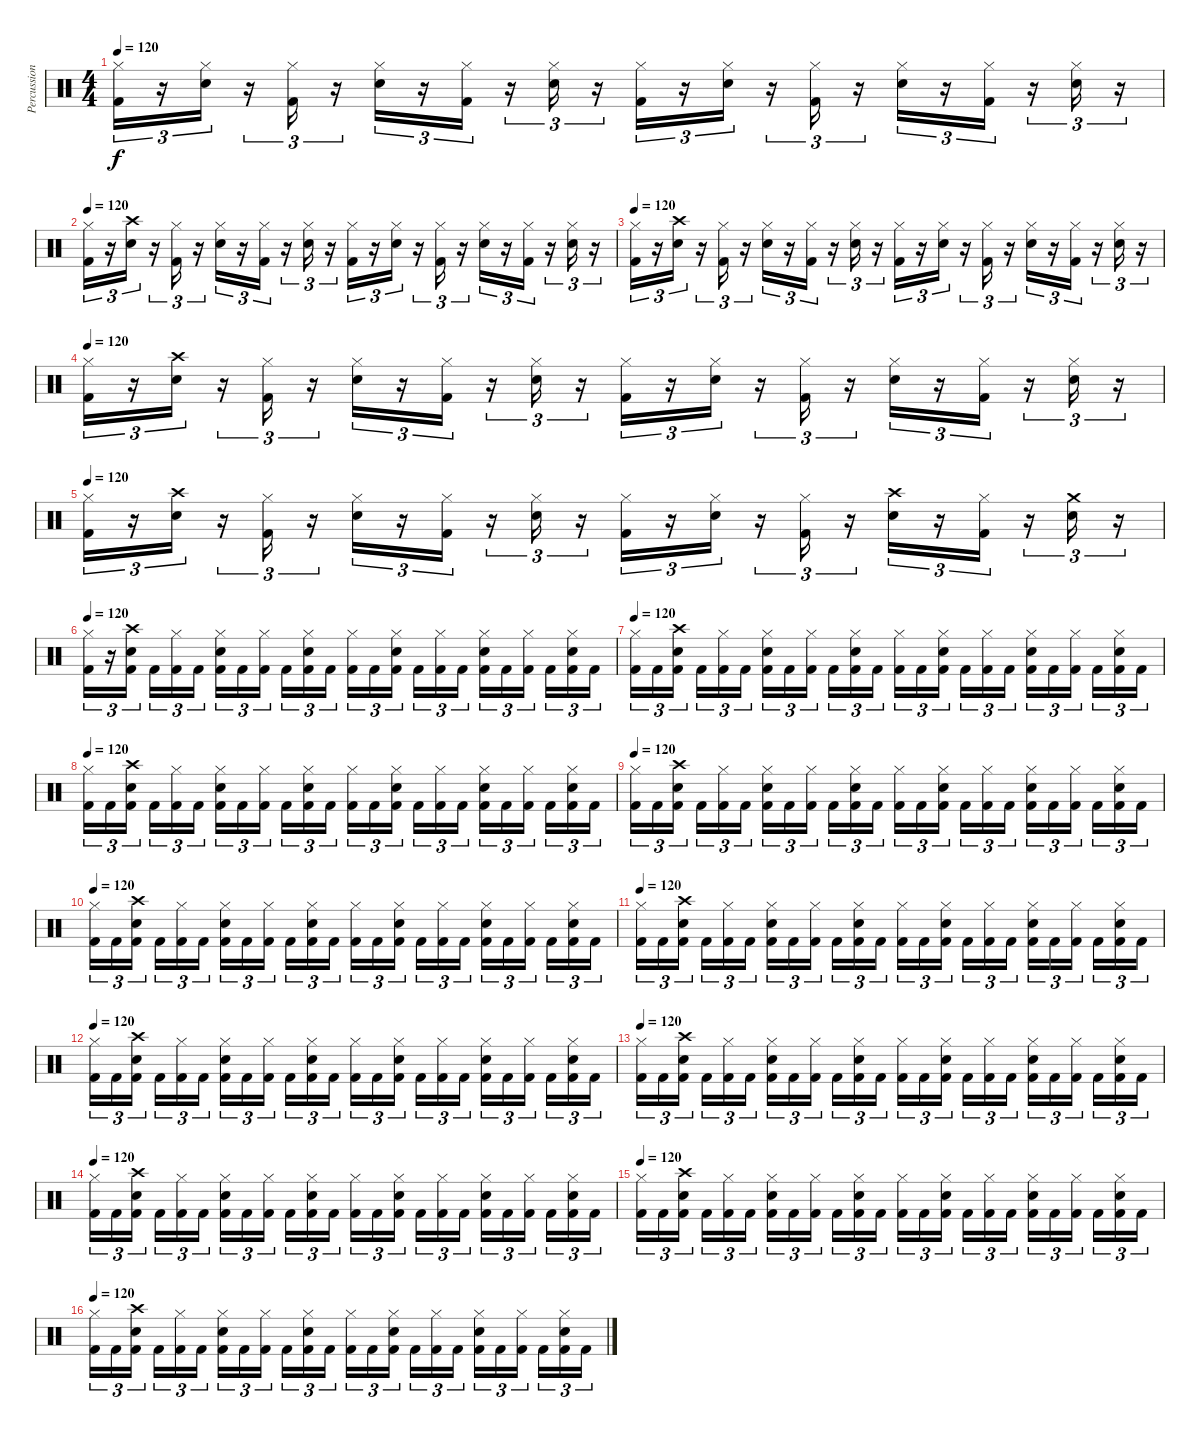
\track ("Percussion" "Percussion") {instrument percussion}
\staff {score}
\articulation defaults
\ts (4 4)
\tempo 120
\clef neutral
\ks c
("Hi-Hat (closed)" "Kick (hit) 2").16{tu (3 2) dy f} r.16{tu (3 2)} ("Hi-Hat (closed)" "Snare (hit) 2").16{tu (3 2)} r.16{tu (3 2)} ("Hi-Hat (closed)" "Kick (hit) 2").16{tu (3 2)} r.16{tu (3 2)} ("Hi-Hat (closed)" "Snare (hit) 2").16{tu (3 2)} r.16{tu (3 2)} ("Hi-Hat (closed)" "Kick (hit) 2").16{tu (3 2)} r.16{tu (3 2)} ("Hi-Hat (closed)" "Snare (hit) 2").16{tu (3 2)} r.16{tu (3 2)} ("Hi-Hat (closed)" "Kick (hit) 2").16{tu (3 2)} r.16{tu (3 2)} ("Hi-Hat (closed)" "Snare (hit) 2").16{tu (3 2)} r.16{tu (3 2)} ("Hi-Hat (closed)" "Kick (hit) 2").16{tu (3 2)} r.16{tu (3 2)} ("Hi-Hat (closed)" "Snare (hit) 2").16{tu (3 2)} r.16{tu (3 2)} ("Hi-Hat (closed)" "Kick (hit) 2").16{tu (3 2)} r.16{tu (3 2)} ("Hi-Hat (closed)" "Snare (hit) 2").16{tu (3 2)} r.16{tu (3 2)} |
\tempo 120
("Hi-Hat (closed)" "Kick (hit) 2").16{tu (3 2)} r.16{tu (3 2)} ("Crash high (hit)" "Snare (hit) 2").16{tu (3 2)} r.16{tu (3 2)} ("Hi-Hat (closed)" "Kick (hit) 2").16{tu (3 2)} r.16{tu (3 2)} ("Hi-Hat (closed)" "Snare (hit) 2").16{tu (3 2)} r.16{tu (3 2)} ("Hi-Hat (closed)" "Kick (hit) 2").16{tu (3 2)} r.16{tu (3 2)} ("Hi-Hat (closed)" "Snare (hit) 2").16{tu (3 2)} r.16{tu (3 2)} ("Hi-Hat (closed)" "Kick (hit) 2").16{tu (3 2)} r.16{tu (3 2)} ("Hi-Hat (closed)" "Snare (hit) 2").16{tu (3 2)} r.16{tu (3 2)} ("Hi-Hat (closed)" "Kick (hit) 2").16{tu (3 2)} r.16{tu (3 2)} ("Hi-Hat (closed)" "Snare (hit) 2").16{tu (3 2)} r.16{tu (3 2)} ("Hi-Hat (closed)" "Kick (hit) 2").16{tu (3 2)} r.16{tu (3 2)} ("Hi-Hat (closed)" "Snare (hit) 2").16{tu (3 2)} r.16{tu (3 2)} |
\tempo 120
("Hi-Hat (closed)" "Kick (hit) 2").16{tu (3 2)} r.16{tu (3 2)} ("Crash high (hit)" "Snare (hit) 2").16{tu (3 2)} r.16{tu (3 2)} ("Hi-Hat (closed)" "Kick (hit) 2").16{tu (3 2)} r.16{tu (3 2)} ("Hi-Hat (closed)" "Snare (hit) 2").16{tu (3 2)} r.16{tu (3 2)} ("Hi-Hat (closed)" "Kick (hit) 2").16{tu (3 2)} r.16{tu (3 2)} ("Hi-Hat (closed)" "Snare (hit) 2").16{tu (3 2)} r.16{tu (3 2)} ("Hi-Hat (closed)" "Kick (hit) 2").16{tu (3 2)} r.16{tu (3 2)} ("Hi-Hat (closed)" "Snare (hit) 2").16{tu (3 2)} r.16{tu (3 2)} ("Hi-Hat (closed)" "Kick (hit) 2").16{tu (3 2)} r.16{tu (3 2)} ("Hi-Hat (closed)" "Snare (hit) 2").16{tu (3 2)} r.16{tu (3 2)} ("Hi-Hat (closed)" "Kick (hit) 2").16{tu (3 2)} r.16{tu (3 2)} ("Hi-Hat (closed)" "Snare (hit) 2").16{tu (3 2)} r.16{tu (3 2)} |
\tempo 120
("Hi-Hat (closed)" "Kick (hit) 2").16{tu (3 2)} r.16{tu (3 2)} ("Crash high (hit)" "Snare (hit) 2").16{tu (3 2)} r.16{tu (3 2)} ("Hi-Hat (closed)" "Kick (hit) 2").16{tu (3 2)} r.16{tu (3 2)} ("Hi-Hat (closed)" "Snare (hit) 2").16{tu (3 2)} r.16{tu (3 2)} ("Hi-Hat (closed)" "Kick (hit) 2").16{tu (3 2)} r.16{tu (3 2)} ("Hi-Hat (closed)" "Snare (hit) 2").16{tu (3 2)} r.16{tu (3 2)} ("Hi-Hat (closed)" "Kick (hit) 2").16{tu (3 2)} r.16{tu (3 2)} ("Hi-Hat (closed)" "Snare (hit) 2").16{tu (3 2)} r.16{tu (3 2)} ("Hi-Hat (closed)" "Kick (hit) 2").16{tu (3 2)} r.16{tu (3 2)} ("Hi-Hat (closed)" "Snare (hit) 2").16{tu (3 2)} r.16{tu (3 2)} ("Hi-Hat (closed)" "Kick (hit) 2").16{tu (3 2)} r.16{tu (3 2)} ("Hi-Hat (closed)" "Snare (hit) 2").16{tu (3 2)} r.16{tu (3 2)} |
\tempo 120
("Hi-Hat (closed)" "Kick (hit) 2").16{tu (3 2)} r.16{tu (3 2)} ("Crash high (hit)" "Snare (hit) 2").16{tu (3 2)} r.16{tu (3 2)} ("Hi-Hat (closed)" "Kick (hit) 2").16{tu (3 2)} r.16{tu (3 2)} ("Hi-Hat (closed)" "Snare (hit) 2").16{tu (3 2)} r.16{tu (3 2)} ("Hi-Hat (closed)" "Kick (hit) 2").16{tu (3 2)} r.16{tu (3 2)} ("Hi-Hat (closed)" "Snare (hit) 2").16{tu (3 2)} r.16{tu (3 2)} ("Hi-Hat (closed)" "Kick (hit) 2").16{tu (3 2)} r.16{tu (3 2)} ("Hi-Hat (closed)" "Snare (hit) 2").16{tu (3 2)} r.16{tu (3 2)} ("Hi-Hat (closed)" "Kick (hit) 2").16{tu (3 2)} r.16{tu (3 2)} ("Crash high (hit)" "Snare (hit) 2").16{tu (3 2)} r.16{tu (3 2)} ("Hi-Hat (closed)" "Kick (hit) 2").16{tu (3 2)} r.16{tu (3 2)} ("Crash medium (hit)" "Snare (hit) 2").16{tu (3 2)} r.16{tu (3 2)} |
\tempo 120
("Hi-Hat (closed)" "Kick (hit) 2").16{tu (3 2)} r.16{tu (3 2)} ("Crash high (hit)" "Snare (hit) 2" "Kick (hit) 2").16{tu (3 2) beam splitsecondary} "Kick (hit) 2".16{tu (3 2)} ("Hi-Hat (closed)" "Kick (hit) 2").16{tu (3 2)} "Kick (hit) 2".16{tu (3 2)} ("Hi-Hat (closed)" "Snare (hit) 2" "Kick (hit) 2").16{tu (3 2)} "Kick (hit) 2".16{tu (3 2)} ("Hi-Hat (closed)" "Kick (hit) 2").16{tu (3 2) beam splitsecondary} "Kick (hit) 2".16{tu (3 2)} ("Hi-Hat (closed)" "Snare (hit) 2" "Kick (hit) 2").16{tu (3 2)} "Kick (hit) 2".16{tu (3 2)} ("Hi-Hat (closed)" "Kick (hit) 2").16{tu (3 2)} "Kick (hit) 2".16{tu (3 2)} ("Hi-Hat (closed)" "Snare (hit) 2" "Kick (hit) 2").16{tu (3 2) beam splitsecondary} "Kick (hit) 2".16{tu (3 2)} ("Hi-Hat (closed)" "Kick (hit) 2").16{tu (3 2)} "Kick (hit) 2".16{tu (3 2)} ("Hi-Hat (closed)" "Snare (hit) 2" "Kick (hit) 2").16{tu (3 2)} "Kick (hit) 2".16{tu (3 2)} ("Hi-Hat (closed)" "Kick (hit) 2").16{tu (3 2) beam splitsecondary} "Kick (hit) 2".16{tu (3 2)} ("Hi-Hat (closed)" "Snare (hit) 2" "Kick (hit) 2").16{tu (3 2)} "Kick (hit) 2".16{tu (3 2)} |
\tempo 120
("Hi-Hat (closed)" "Kick (hit) 2").16{tu (3 2)} "Kick (hit) 2".16{tu (3 2)} ("Crash high (hit)" "Snare (hit) 2" "Kick (hit) 2").16{tu (3 2) beam splitsecondary} "Kick (hit) 2".16{tu (3 2)} ("Hi-Hat (closed)" "Kick (hit) 2").16{tu (3 2)} "Kick (hit) 2".16{tu (3 2)} ("Hi-Hat (closed)" "Snare (hit) 2" "Kick (hit) 2").16{tu (3 2)} "Kick (hit) 2".16{tu (3 2)} ("Hi-Hat (closed)" "Kick (hit) 2").16{tu (3 2) beam splitsecondary} "Kick (hit) 2".16{tu (3 2)} ("Hi-Hat (closed)" "Snare (hit) 2" "Kick (hit) 2").16{tu (3 2)} "Kick (hit) 2".16{tu (3 2)} ("Hi-Hat (closed)" "Kick (hit) 2").16{tu (3 2)} "Kick (hit) 2".16{tu (3 2)} ("Hi-Hat (closed)" "Snare (hit) 2" "Kick (hit) 2").16{tu (3 2) beam splitsecondary} "Kick (hit) 2".16{tu (3 2)} ("Hi-Hat (closed)" "Kick (hit) 2").16{tu (3 2)} "Kick (hit) 2".16{tu (3 2)} ("Hi-Hat (closed)" "Snare (hit) 2" "Kick (hit) 2").16{tu (3 2)} "Kick (hit) 2".16{tu (3 2)} ("Hi-Hat (closed)" "Kick (hit) 2").16{tu (3 2) beam splitsecondary} "Kick (hit) 2".16{tu (3 2)} ("Hi-Hat (closed)" "Snare (hit) 2" "Kick (hit) 2").16{tu (3 2)} "Kick (hit) 2".16{tu (3 2)} |
\tempo 120
("Hi-Hat (closed)" "Kick (hit) 2").16{tu (3 2)} "Kick (hit) 2".16{tu (3 2)} ("Crash high (hit)" "Snare (hit) 2" "Kick (hit) 2").16{tu (3 2) beam splitsecondary} "Kick (hit) 2".16{tu (3 2)} ("Hi-Hat (closed)" "Kick (hit) 2").16{tu (3 2)} "Kick (hit) 2".16{tu (3 2)} ("Hi-Hat (closed)" "Snare (hit) 2" "Kick (hit) 2").16{tu (3 2)} "Kick (hit) 2".16{tu (3 2)} ("Hi-Hat (closed)" "Kick (hit) 2").16{tu (3 2) beam splitsecondary} "Kick (hit) 2".16{tu (3 2)} ("Hi-Hat (closed)" "Snare (hit) 2" "Kick (hit) 2").16{tu (3 2)} "Kick (hit) 2".16{tu (3 2)} ("Hi-Hat (closed)" "Kick (hit) 2").16{tu (3 2)} "Kick (hit) 2".16{tu (3 2)} ("Hi-Hat (closed)" "Snare (hit) 2" "Kick (hit) 2").16{tu (3 2) beam splitsecondary} "Kick (hit) 2".16{tu (3 2)} ("Hi-Hat (closed)" "Kick (hit) 2").16{tu (3 2)} "Kick (hit) 2".16{tu (3 2)} ("Hi-Hat (closed)" "Snare (hit) 2" "Kick (hit) 2").16{tu (3 2)} "Kick (hit) 2".16{tu (3 2)} ("Hi-Hat (closed)" "Kick (hit) 2").16{tu (3 2) beam splitsecondary} "Kick (hit) 2".16{tu (3 2)} ("Hi-Hat (closed)" "Snare (hit) 2" "Kick (hit) 2").16{tu (3 2)} "Kick (hit) 2".16{tu (3 2)} |
\tempo 120
("Hi-Hat (closed)" "Kick (hit) 2").16{tu (3 2)} "Kick (hit) 2".16{tu (3 2)} ("Crash high (hit)" "Snare (hit) 2" "Kick (hit) 2").16{tu (3 2) beam splitsecondary} "Kick (hit) 2".16{tu (3 2)} ("Hi-Hat (closed)" "Kick (hit) 2").16{tu (3 2)} "Kick (hit) 2".16{tu (3 2)} ("Hi-Hat (closed)" "Snare (hit) 2" "Kick (hit) 2").16{tu (3 2)} "Kick (hit) 2".16{tu (3 2)} ("Hi-Hat (closed)" "Kick (hit) 2").16{tu (3 2) beam splitsecondary} "Kick (hit) 2".16{tu (3 2)} ("Hi-Hat (closed)" "Snare (hit) 2" "Kick (hit) 2").16{tu (3 2)} "Kick (hit) 2".16{tu (3 2)} ("Hi-Hat (closed)" "Kick (hit) 2").16{tu (3 2)} "Kick (hit) 2".16{tu (3 2)} ("Hi-Hat (closed)" "Snare (hit) 2" "Kick (hit) 2").16{tu (3 2) beam splitsecondary} "Kick (hit) 2".16{tu (3 2)} ("Hi-Hat (closed)" "Kick (hit) 2").16{tu (3 2)} "Kick (hit) 2".16{tu (3 2)} ("Hi-Hat (closed)" "Snare (hit) 2" "Kick (hit) 2").16{tu (3 2)} "Kick (hit) 2".16{tu (3 2)} ("Hi-Hat (closed)" "Kick (hit) 2").16{tu (3 2) beam splitsecondary} "Kick (hit) 2".16{tu (3 2)} ("Hi-Hat (closed)" "Snare (hit) 2" "Kick (hit) 2").16{tu (3 2)} "Kick (hit) 2".16{tu (3 2)} |
\tempo 120
("Hi-Hat (closed)" "Kick (hit) 2").16{tu (3 2)} "Kick (hit) 2".16{tu (3 2)} ("Crash high (hit)" "Snare (hit) 2" "Kick (hit) 2").16{tu (3 2) beam splitsecondary} "Kick (hit) 2".16{tu (3 2)} ("Hi-Hat (closed)" "Kick (hit) 2").16{tu (3 2)} "Kick (hit) 2".16{tu (3 2)} ("Hi-Hat (closed)" "Snare (hit) 2" "Kick (hit) 2").16{tu (3 2)} "Kick (hit) 2".16{tu (3 2)} ("Hi-Hat (closed)" "Kick (hit) 2").16{tu (3 2) beam splitsecondary} "Kick (hit) 2".16{tu (3 2)} ("Hi-Hat (closed)" "Snare (hit) 2" "Kick (hit) 2").16{tu (3 2)} "Kick (hit) 2".16{tu (3 2)} ("Hi-Hat (closed)" "Kick (hit) 2").16{tu (3 2)} "Kick (hit) 2".16{tu (3 2)} ("Hi-Hat (closed)" "Snare (hit) 2" "Kick (hit) 2").16{tu (3 2) beam splitsecondary} "Kick (hit) 2".16{tu (3 2)} ("Hi-Hat (closed)" "Kick (hit) 2").16{tu (3 2)} "Kick (hit) 2".16{tu (3 2)} ("Hi-Hat (closed)" "Snare (hit) 2" "Kick (hit) 2").16{tu (3 2)} "Kick (hit) 2".16{tu (3 2)} ("Hi-Hat (closed)" "Kick (hit) 2").16{tu (3 2) beam splitsecondary} "Kick (hit) 2".16{tu (3 2)} ("Hi-Hat (closed)" "Snare (hit) 2" "Kick (hit) 2").16{tu (3 2)} "Kick (hit) 2".16{tu (3 2)} |
\tempo 120
("Hi-Hat (closed)" "Kick (hit) 2").16{tu (3 2)} "Kick (hit) 2".16{tu (3 2)} ("Crash high (hit)" "Snare (hit) 2" "Kick (hit) 2").16{tu (3 2) beam splitsecondary} "Kick (hit) 2".16{tu (3 2)} ("Hi-Hat (closed)" "Kick (hit) 2").16{tu (3 2)} "Kick (hit) 2".16{tu (3 2)} ("Hi-Hat (closed)" "Snare (hit) 2" "Kick (hit) 2").16{tu (3 2)} "Kick (hit) 2".16{tu (3 2)} ("Hi-Hat (closed)" "Kick (hit) 2").16{tu (3 2) beam splitsecondary} "Kick (hit) 2".16{tu (3 2)} ("Hi-Hat (closed)" "Snare (hit) 2" "Kick (hit) 2").16{tu (3 2)} "Kick (hit) 2".16{tu (3 2)} ("Hi-Hat (closed)" "Kick (hit) 2").16{tu (3 2)} "Kick (hit) 2".16{tu (3 2)} ("Hi-Hat (closed)" "Snare (hit) 2" "Kick (hit) 2").16{tu (3 2) beam splitsecondary} "Kick (hit) 2".16{tu (3 2)} ("Hi-Hat (closed)" "Kick (hit) 2").16{tu (3 2)} "Kick (hit) 2".16{tu (3 2)} ("Hi-Hat (closed)" "Snare (hit) 2" "Kick (hit) 2").16{tu (3 2)} "Kick (hit) 2".16{tu (3 2)} ("Hi-Hat (closed)" "Kick (hit) 2").16{tu (3 2) beam splitsecondary} "Kick (hit) 2".16{tu (3 2)} ("Hi-Hat (closed)" "Snare (hit) 2" "Kick (hit) 2").16{tu (3 2)} "Kick (hit) 2".16{tu (3 2)} |
\tempo 120
("Hi-Hat (closed)" "Kick (hit) 2").16{tu (3 2)} "Kick (hit) 2".16{tu (3 2)} ("Crash high (hit)" "Snare (hit) 2" "Kick (hit) 2").16{tu (3 2) beam splitsecondary} "Kick (hit) 2".16{tu (3 2)} ("Hi-Hat (closed)" "Kick (hit) 2").16{tu (3 2)} "Kick (hit) 2".16{tu (3 2)} ("Hi-Hat (closed)" "Snare (hit) 2" "Kick (hit) 2").16{tu (3 2)} "Kick (hit) 2".16{tu (3 2)} ("Hi-Hat (closed)" "Kick (hit) 2").16{tu (3 2) beam splitsecondary} "Kick (hit) 2".16{tu (3 2)} ("Hi-Hat (closed)" "Snare (hit) 2" "Kick (hit) 2").16{tu (3 2)} "Kick (hit) 2".16{tu (3 2)} ("Hi-Hat (closed)" "Kick (hit) 2").16{tu (3 2)} "Kick (hit) 2".16{tu (3 2)} ("Hi-Hat (closed)" "Snare (hit) 2" "Kick (hit) 2").16{tu (3 2) beam splitsecondary} "Kick (hit) 2".16{tu (3 2)} ("Hi-Hat (closed)" "Kick (hit) 2").16{tu (3 2)} "Kick (hit) 2".16{tu (3 2)} ("Hi-Hat (closed)" "Snare (hit) 2" "Kick (hit) 2").16{tu (3 2)} "Kick (hit) 2".16{tu (3 2)} ("Hi-Hat (closed)" "Kick (hit) 2").16{tu (3 2) beam splitsecondary} "Kick (hit) 2".16{tu (3 2)} ("Hi-Hat (closed)" "Snare (hit) 2" "Kick (hit) 2").16{tu (3 2)} "Kick (hit) 2".16{tu (3 2)} |
\tempo 120
("Hi-Hat (closed)" "Kick (hit) 2").16{tu (3 2)} "Kick (hit) 2".16{tu (3 2)} ("Crash high (hit)" "Snare (hit) 2" "Kick (hit) 2").16{tu (3 2) beam splitsecondary} "Kick (hit) 2".16{tu (3 2)} ("Hi-Hat (closed)" "Kick (hit) 2").16{tu (3 2)} "Kick (hit) 2".16{tu (3 2)} ("Hi-Hat (closed)" "Snare (hit) 2" "Kick (hit) 2").16{tu (3 2)} "Kick (hit) 2".16{tu (3 2)} ("Hi-Hat (closed)" "Kick (hit) 2").16{tu (3 2) beam splitsecondary} "Kick (hit) 2".16{tu (3 2)} ("Hi-Hat (closed)" "Snare (hit) 2" "Kick (hit) 2").16{tu (3 2)} "Kick (hit) 2".16{tu (3 2)} ("Hi-Hat (closed)" "Kick (hit) 2").16{tu (3 2)} "Kick (hit) 2".16{tu (3 2)} ("Hi-Hat (closed)" "Snare (hit) 2" "Kick (hit) 2").16{tu (3 2) beam splitsecondary} "Kick (hit) 2".16{tu (3 2)} ("Hi-Hat (closed)" "Kick (hit) 2").16{tu (3 2)} "Kick (hit) 2".16{tu (3 2)} ("Hi-Hat (closed)" "Snare (hit) 2" "Kick (hit) 2").16{tu (3 2)} "Kick (hit) 2".16{tu (3 2)} ("Hi-Hat (closed)" "Kick (hit) 2").16{tu (3 2) beam splitsecondary} "Kick (hit) 2".16{tu (3 2)} ("Hi-Hat (closed)" "Snare (hit) 2" "Kick (hit) 2").16{tu (3 2)} "Kick (hit) 2".16{tu (3 2)} |
\tempo 120
("Hi-Hat (closed)" "Kick (hit) 2").16{tu (3 2)} "Kick (hit) 2".16{tu (3 2)} ("Crash high (hit)" "Snare (hit) 2" "Kick (hit) 2").16{tu (3 2) beam splitsecondary} "Kick (hit) 2".16{tu (3 2)} ("Hi-Hat (closed)" "Kick (hit) 2").16{tu (3 2)} "Kick (hit) 2".16{tu (3 2)} ("Hi-Hat (closed)" "Snare (hit) 2" "Kick (hit) 2").16{tu (3 2)} "Kick (hit) 2".16{tu (3 2)} ("Hi-Hat (closed)" "Kick (hit) 2").16{tu (3 2) beam splitsecondary} "Kick (hit) 2".16{tu (3 2)} ("Hi-Hat (closed)" "Snare (hit) 2" "Kick (hit) 2").16{tu (3 2)} "Kick (hit) 2".16{tu (3 2)} ("Hi-Hat (closed)" "Kick (hit) 2").16{tu (3 2)} "Kick (hit) 2".16{tu (3 2)} ("Hi-Hat (closed)" "Snare (hit) 2" "Kick (hit) 2").16{tu (3 2) beam splitsecondary} "Kick (hit) 2".16{tu (3 2)} ("Hi-Hat (closed)" "Kick (hit) 2").16{tu (3 2)} "Kick (hit) 2".16{tu (3 2)} ("Hi-Hat (closed)" "Snare (hit) 2" "Kick (hit) 2").16{tu (3 2)} "Kick (hit) 2".16{tu (3 2)} ("Hi-Hat (closed)" "Kick (hit) 2").16{tu (3 2) beam splitsecondary} "Kick (hit) 2".16{tu (3 2)} ("Hi-Hat (closed)" "Snare (hit) 2" "Kick (hit) 2").16{tu (3 2)} "Kick (hit) 2".16{tu (3 2)} |
\tempo 120
("Hi-Hat (closed)" "Kick (hit) 2").16{tu (3 2)} "Kick (hit) 2".16{tu (3 2)} ("Crash high (hit)" "Snare (hit) 2" "Kick (hit) 2").16{tu (3 2) beam splitsecondary} "Kick (hit) 2".16{tu (3 2)} ("Hi-Hat (closed)" "Kick (hit) 2").16{tu (3 2)} "Kick (hit) 2".16{tu (3 2)} ("Hi-Hat (closed)" "Snare (hit) 2" "Kick (hit) 2").16{tu (3 2)} "Kick (hit) 2".16{tu (3 2)} ("Hi-Hat (closed)" "Kick (hit) 2").16{tu (3 2) beam splitsecondary} "Kick (hit) 2".16{tu (3 2)} ("Hi-Hat (closed)" "Snare (hit) 2" "Kick (hit) 2").16{tu (3 2)} "Kick (hit) 2".16{tu (3 2)} ("Hi-Hat (closed)" "Kick (hit) 2").16{tu (3 2)} "Kick (hit) 2".16{tu (3 2)} ("Hi-Hat (closed)" "Snare (hit) 2" "Kick (hit) 2").16{tu (3 2) beam splitsecondary} "Kick (hit) 2".16{tu (3 2)} ("Hi-Hat (closed)" "Kick (hit) 2").16{tu (3 2)} "Kick (hit) 2".16{tu (3 2)} ("Hi-Hat (closed)" "Snare (hit) 2" "Kick (hit) 2").16{tu (3 2)} "Kick (hit) 2".16{tu (3 2)} ("Hi-Hat (closed)" "Kick (hit) 2").16{tu (3 2) beam splitsecondary} "Kick (hit) 2".16{tu (3 2)} ("Hi-Hat (closed)" "Snare (hit) 2" "Kick (hit) 2").16{tu (3 2)} "Kick (hit) 2".16{tu (3 2)} |
\tempo 120
("Hi-Hat (closed)" "Kick (hit) 2").16{tu (3 2)} "Kick (hit) 2".16{tu (3 2)} ("Crash high (hit)" "Snare (hit) 2" "Kick (hit) 2").16{tu (3 2) beam splitsecondary} "Kick (hit) 2".16{tu (3 2)} ("Hi-Hat (closed)" "Kick (hit) 2").16{tu (3 2)} "Kick (hit) 2".16{tu (3 2)} ("Hi-Hat (closed)" "Snare (hit) 2" "Kick (hit) 2").16{tu (3 2)} "Kick (hit) 2".16{tu (3 2)} ("Hi-Hat (closed)" "Kick (hit) 2").16{tu (3 2) beam splitsecondary} "Kick (hit) 2".16{tu (3 2)} ("Hi-Hat (closed)" "Snare (hit) 2" "Kick (hit) 2").16{tu (3 2)} "Kick (hit) 2".16{tu (3 2)} ("Hi-Hat (closed)" "Kick (hit) 2").16{tu (3 2)} "Kick (hit) 2".16{tu (3 2)} ("Hi-Hat (closed)" "Snare (hit) 2" "Kick (hit) 2").16{tu (3 2) beam splitsecondary} "Kick (hit) 2".16{tu (3 2)} ("Hi-Hat (closed)" "Kick (hit) 2").16{tu (3 2)} "Kick (hit) 2".16{tu (3 2)} ("Hi-Hat (closed)" "Snare (hit) 2" "Kick (hit) 2").16{tu (3 2)} "Kick (hit) 2".16{tu (3 2)} ("Hi-Hat (closed)" "Kick (hit) 2").16{tu (3 2) beam splitsecondary} "Kick (hit) 2".16{tu (3 2)} ("Hi-Hat (closed)" "Snare (hit) 2" "Kick (hit) 2").16{tu (3 2)} "Kick (hit) 2".16{tu (3 2)}
